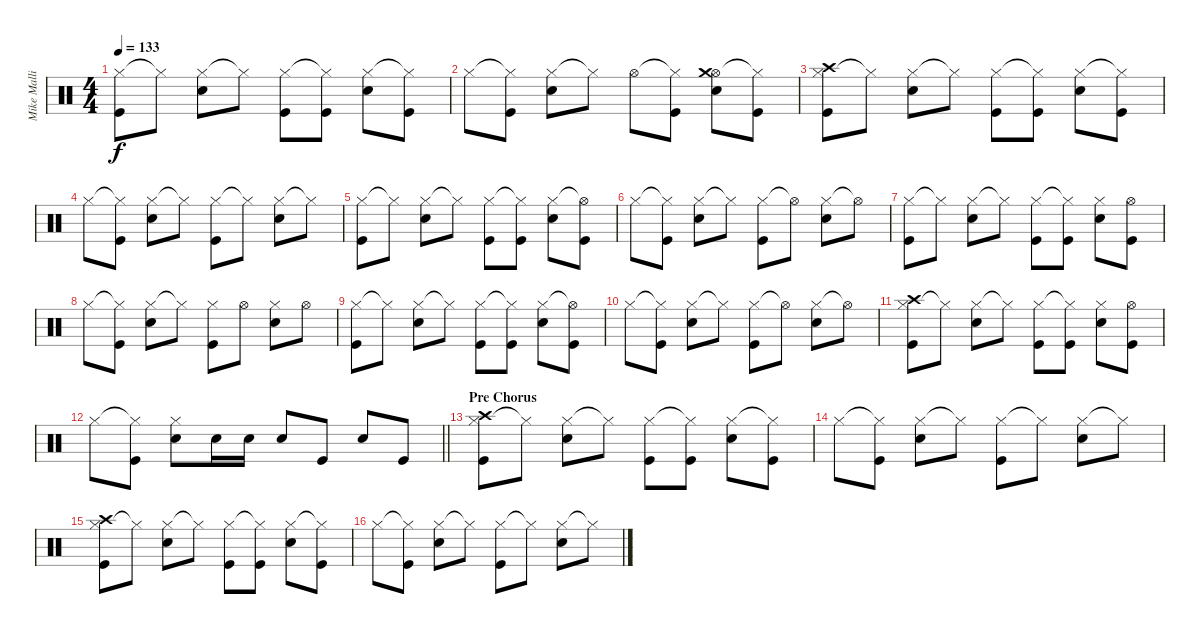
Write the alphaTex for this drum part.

\track ("Mike Mallinin" "Mike Malli") {instrument percussion}
\staff {score}
\articulation defaults
\ts (4 4)
\tempo 133
\clef neutral
\ks c
("Hi-Hat (closed)" "Kick (hit)").8{dy f} "Hi-Hat (closed)"{t}.8 ("Hi-Hat (closed)" "Snare (hit) 2").8 "Hi-Hat (closed)"{t}.8 ("Hi-Hat (closed)" "Kick (hit)").8 ("Hi-Hat (closed)"{t} "Kick (hit)").8 ("Hi-Hat (closed)" "Snare (hit) 2").8 ("Hi-Hat (closed)"{t} "Kick (hit)").8 |
"Hi-Hat (closed)".8 ("Hi-Hat (closed)"{t} "Kick (hit)").8 ("Hi-Hat (closed)" "Snare (hit) 2").8 "Hi-Hat (closed)"{t}.8 "Hi-Hat (open)".8 ("Hi-Hat (closed)"{t} "Kick (hit)").8 ("Hi-Hat (open)" "Crash medium (hit)" "Snare (hit) 2").8 ("Hi-Hat (closed)"{t} "Kick (hit)").8 |
("Hi-Hat (closed)" "Crash high (hit)" "Kick (hit)").8 "Hi-Hat (closed)"{t}.8 ("Hi-Hat (closed)" "Snare (hit) 2").8 "Hi-Hat (closed)"{t}.8 ("Hi-Hat (closed)" "Kick (hit)").8 ("Hi-Hat (closed)"{t} "Kick (hit)").8 ("Hi-Hat (closed)" "Snare (hit) 2").8 ("Hi-Hat (closed)"{t} "Kick (hit)").8 |
"Hi-Hat (closed)".8 ("Hi-Hat (closed)"{t} "Kick (hit)").8 ("Hi-Hat (closed)" "Snare (hit) 2").8 "Hi-Hat (closed)"{t}.8 ("Hi-Hat (closed)" "Kick (hit)").8 "Hi-Hat (closed)"{t}.8 ("Hi-Hat (closed)" "Snare (hit) 2").8 "Hi-Hat (closed)"{t}.8 |
("Hi-Hat (closed)" "Kick (hit)").8 "Hi-Hat (closed)"{t}.8 ("Hi-Hat (closed)" "Snare (hit) 2").8 "Hi-Hat (closed)"{t}.8 ("Hi-Hat (closed)" "Kick (hit)").8 ("Hi-Hat (closed)"{t} "Kick (hit)").8 ("Hi-Hat (closed)" "Snare (hit) 2").8 ("Hi-Hat (open)"{t} "Kick (hit)").8 |
"Hi-Hat (closed)".8 ("Hi-Hat (closed)"{t} "Kick (hit)").8 ("Hi-Hat (closed)" "Snare (hit) 2").8 "Hi-Hat (closed)"{t}.8 ("Hi-Hat (closed)" "Kick (hit)").8 "Hi-Hat (open)"{t}.8 ("Hi-Hat (closed)" "Snare (hit) 2").8 "Hi-Hat (open)"{t}.8 |
("Hi-Hat (closed)" "Kick (hit)").8 "Hi-Hat (closed)"{t}.8 ("Hi-Hat (closed)" "Snare (hit) 2").8 "Hi-Hat (closed)"{t}.8 ("Hi-Hat (closed)" "Kick (hit)").8 ("Hi-Hat (closed)"{t} "Kick (hit)").8 ("Hi-Hat (closed)" "Snare (hit) 2").8 ("Hi-Hat (open)" "Kick (hit)").8 |
"Hi-Hat (closed)".8 ("Hi-Hat (closed)"{t} "Kick (hit)").8 ("Hi-Hat (closed)" "Snare (hit) 2").8 "Hi-Hat (closed)"{t}.8 ("Hi-Hat (closed)" "Kick (hit)").8 "Hi-Hat (open)".8 ("Hi-Hat (closed)" "Snare (hit) 2").8 "Hi-Hat (open)".8 |
("Hi-Hat (closed)" "Kick (hit)").8 "Hi-Hat (closed)"{t}.8 ("Hi-Hat (closed)" "Snare (hit) 2").8 "Hi-Hat (closed)"{t}.8 ("Hi-Hat (closed)" "Kick (hit)").8 ("Hi-Hat (closed)"{t} "Kick (hit)").8 ("Hi-Hat (closed)" "Snare (hit) 2").8 ("Hi-Hat (open)"{t} "Kick (hit)").8 |
"Hi-Hat (closed)".8 ("Hi-Hat (closed)"{t} "Kick (hit)").8 ("Hi-Hat (closed)" "Snare (hit) 2").8 "Hi-Hat (closed)"{t}.8 ("Hi-Hat (closed)" "Kick (hit)").8 "Hi-Hat (open)"{t}.8 ("Hi-Hat (closed)" "Snare (hit) 2").8 "Hi-Hat (open)"{t}.8 |
("Hi-Hat (closed)" "Crash high (hit)" "Kick (hit)").8 "Hi-Hat (closed)"{t}.8 ("Hi-Hat (closed)" "Snare (hit) 2").8 "Hi-Hat (closed)"{t}.8 ("Hi-Hat (closed)" "Kick (hit)").8 ("Hi-Hat (closed)"{t} "Kick (hit)").8 ("Hi-Hat (closed)" "Snare (hit) 2").8 ("Hi-Hat (open)" "Kick (hit)").8 |
\barLineRight lightlight "Hi-Hat (closed)".8
("Hi-Hat (closed)"{t} "Kick (hit)").8 ("Hi-Hat (closed)" "Snare (hit) 2").8 "Snare (hit) 2".16 "Snare (hit) 2".16 "Snare (hit) 2".8 "Kick (hit)".8 "Snare (hit) 2".8 "Kick (hit)".8 |
\section ("" "Pre Chorus")
("Hi-Hat (closed)" "Crash high (hit)" "Kick (hit)").8 "Hi-Hat (closed)"{t}.8 ("Hi-Hat (closed)" "Snare (hit) 2").8 "Hi-Hat (closed)"{t}.8 ("Hi-Hat (closed)" "Kick (hit)").8 ("Hi-Hat (closed)"{t} "Kick (hit)").8 ("Hi-Hat (closed)" "Snare (hit) 2").8 ("Hi-Hat (closed)"{t} "Kick (hit)").8 |
"Hi-Hat (closed)".8 ("Hi-Hat (closed)"{t} "Kick (hit)").8 ("Hi-Hat (closed)" "Snare (hit) 2").8 "Hi-Hat (closed)"{t}.8 ("Hi-Hat (closed)" "Kick (hit)").8 "Hi-Hat (closed)"{t}.8 ("Hi-Hat (closed)" "Snare (hit) 2").8 "Hi-Hat (closed)"{t}.8 |
("Hi-Hat (closed)" "Crash high (hit)" "Kick (hit)").8 "Hi-Hat (closed)"{t}.8 ("Hi-Hat (closed)" "Snare (hit) 2").8 "Hi-Hat (closed)"{t}.8 ("Hi-Hat (closed)" "Kick (hit)").8 ("Hi-Hat (closed)"{t} "Kick (hit)").8 ("Hi-Hat (closed)" "Snare (hit) 2").8 ("Hi-Hat (closed)"{t} "Kick (hit)").8 |
"Hi-Hat (closed)".8 ("Hi-Hat (closed)"{t} "Kick (hit)").8 ("Hi-Hat (closed)" "Snare (hit) 2").8 "Hi-Hat (closed)"{t}.8 ("Hi-Hat (closed)" "Kick (hit)").8 "Hi-Hat (closed)"{t}.8 ("Hi-Hat (closed)" "Snare (hit) 2").8 "Hi-Hat (closed)"{t}.8
